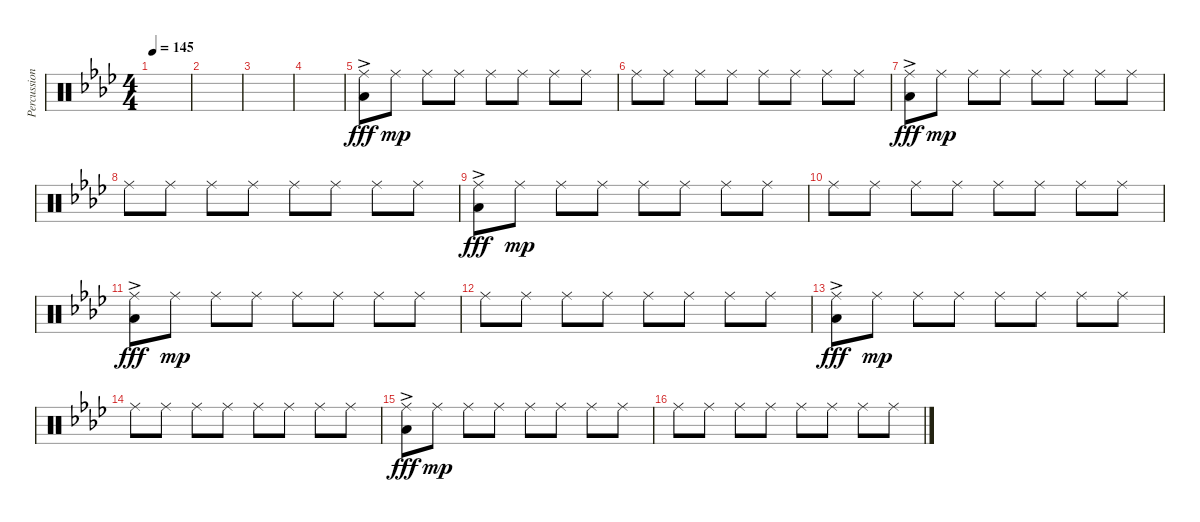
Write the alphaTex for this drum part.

\track ("Percussion" "Percussion") {instrument percussion}
\staff {score}
\articulation defaults
\ts (4 4)
\tempo 145
\clef neutral
\ks ab
|
|
|
|
("Ride (middle)" "Low Floor Tom (hit)"{ac}).8{dy fff} "Ride (middle)".8{dy mp} "Ride (middle)".8 "Ride (middle)".8 "Ride (middle)".8 "Ride (middle)".8 "Ride (middle)".8 "Ride (middle)".8 |
"Ride (middle)".8 "Ride (middle)".8 "Ride (middle)".8 "Ride (middle)".8 "Ride (middle)".8 "Ride (middle)".8 "Ride (middle)".8 "Ride (middle)".8 |
("Ride (middle)" "Low Floor Tom (hit)"{ac}).8{dy fff} "Ride (middle)".8{dy mp} "Ride (middle)".8 "Ride (middle)".8 "Ride (middle)".8 "Ride (middle)".8 "Ride (middle)".8 "Ride (middle)".8 |
"Ride (middle)".8 "Ride (middle)".8 "Ride (middle)".8 "Ride (middle)".8 "Ride (middle)".8 "Ride (middle)".8 "Ride (middle)".8 "Ride (middle)".8 |
("Ride (middle)" "Low Floor Tom (hit)"{ac}).8{dy fff} "Ride (middle)".8{dy mp} "Ride (middle)".8 "Ride (middle)".8 "Ride (middle)".8 "Ride (middle)".8 "Ride (middle)".8 "Ride (middle)".8 |
"Ride (middle)".8 "Ride (middle)".8 "Ride (middle)".8 "Ride (middle)".8 "Ride (middle)".8 "Ride (middle)".8 "Ride (middle)".8 "Ride (middle)".8 |
("Ride (middle)" "Low Floor Tom (hit)"{ac}).8{dy fff} "Ride (middle)".8{dy mp} "Ride (middle)".8 "Ride (middle)".8 "Ride (middle)".8 "Ride (middle)".8 "Ride (middle)".8 "Ride (middle)".8 |
"Ride (middle)".8 "Ride (middle)".8 "Ride (middle)".8 "Ride (middle)".8 "Ride (middle)".8 "Ride (middle)".8 "Ride (middle)".8 "Ride (middle)".8 |
("Ride (middle)" "Low Floor Tom (hit)"{ac}).8{dy fff} "Ride (middle)".8{dy mp} "Ride (middle)".8 "Ride (middle)".8 "Ride (middle)".8 "Ride (middle)".8 "Ride (middle)".8 "Ride (middle)".8 |
"Ride (middle)".8 "Ride (middle)".8 "Ride (middle)".8 "Ride (middle)".8 "Ride (middle)".8 "Ride (middle)".8 "Ride (middle)".8 "Ride (middle)".8 |
("Ride (middle)" "Low Floor Tom (hit)"{ac}).8{dy fff} "Ride (middle)".8{dy mp} "Ride (middle)".8 "Ride (middle)".8 "Ride (middle)".8 "Ride (middle)".8 "Ride (middle)".8 "Ride (middle)".8 |
"Ride (middle)".8 "Ride (middle)".8 "Ride (middle)".8 "Ride (middle)".8 "Ride (middle)".8 "Ride (middle)".8 "Ride (middle)".8 "Ride (middle)".8
